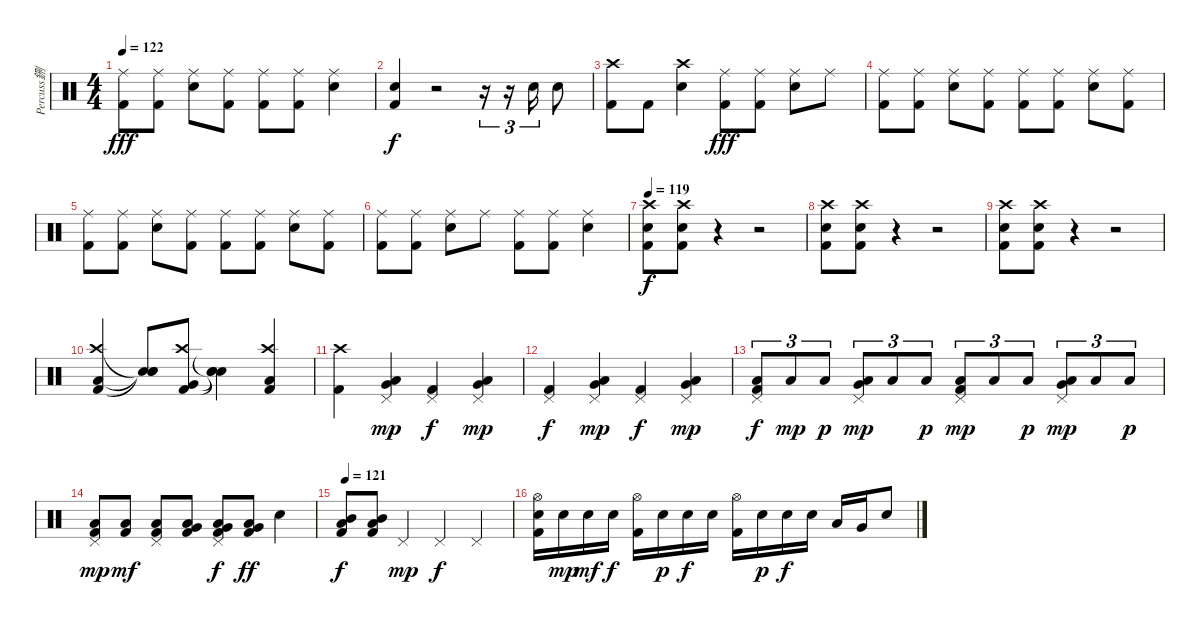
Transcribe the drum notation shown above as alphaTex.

\track ("Percuss鉶" "Percuss鉶") {instrument percussion}
\staff {score}
\articulation defaults
\ts (4 4)
\tempo 122
\clef neutral
\ks c
("Ride (middle)" "Kick (hit) 2").8{dy fff} ("Ride (middle)" "Kick (hit) 2").8 ("Ride (middle)" "Snare (hit) 2").8 ("Ride (middle)" "Kick (hit) 2").8 ("Ride (middle)" "Kick (hit) 2").8 ("Ride (middle)" "Kick (hit) 2").8 ("Ride (middle)" "Snare (hit) 2").4 |
("Snare (hit) 2" "Kick (hit) 2").4{dy f} r.2 r.16{tu (3 2)} r.16{tu (3 2)} "Snare (hit) 2".16{tu (3 2)} "Snare (hit) 2".8 |
("Crash high (hit)" "Kick (hit) 2").8 "Kick (hit) 2".8 ("Crash high (hit)" "Snare (hit) 2").4 ("Ride (middle)" "Kick (hit) 2").8{dy fff} ("Ride (middle)" "Kick (hit) 2").8 ("Ride (middle)" "Snare (hit) 2").8 "Ride (middle)".8 |
("Ride (middle)" "Kick (hit) 2").8 ("Ride (middle)" "Kick (hit) 2").8 ("Ride (middle)" "Snare (hit) 2").8 ("Ride (middle)" "Kick (hit) 2").8 ("Ride (middle)" "Kick (hit) 2").8 ("Ride (middle)" "Kick (hit) 2").8 ("Ride (middle)" "Snare (hit) 2").8 ("Ride (middle)" "Kick (hit) 2").8 |
("Ride (middle)" "Kick (hit) 2").8 ("Ride (middle)" "Kick (hit) 2").8 ("Ride (middle)" "Snare (hit) 2").8 ("Ride (middle)" "Kick (hit) 2").8 ("Ride (middle)" "Kick (hit) 2").8 ("Ride (middle)" "Kick (hit) 2").8 ("Ride (middle)" "Snare (hit) 2").8 ("Ride (middle)" "Kick (hit) 2").8 |
("Ride (middle)" "Kick (hit) 2").8 ("Ride (middle)" "Kick (hit) 2").8 ("Ride (middle)" "Snare (hit) 2").8 "Ride (middle)".8 ("Ride (middle)" "Kick (hit) 2").8 ("Ride (middle)" "Kick (hit) 2").8 ("Ride (middle)" "Snare (hit) 2").4 |
\tempo 119
("Crash high (hit)" "Snare (hit) 2" "Kick (hit) 2").8{dy f} ("Crash high (hit)" "Snare (hit) 2" "Kick (hit) 2").8 r.4 r.2 |
("Crash high (hit)" "Snare (hit) 2" "Kick (hit) 2").8 ("Crash high (hit)" "Snare (hit) 2" "Kick (hit) 2").8 r.4 r.2 |
("Crash high (hit)" "Snare (hit) 2" "Kick (hit) 2").8 ("Crash high (hit)" "Snare (hit) 2" "Kick (hit) 2").8 r.4 r.2 |
("Crash high (hit)" "Low Tom (hit)" "Kick (hit) 2").4 ("Snare (hit)"{t} "Snare (hit)"{t} "Snare (hit)"{t}).8 ("Crash high (hit)" "Very Low Tom (hit)" "Kick (hit) 2").8 ("Snare (hit)"{t} "Snare (hit)"{t} "Snare (hit)"{t}).4 ("Crash high (hit)" "Low Floor Tom (hit)" "Kick (hit) 2").4 |
("Crash high (hit)" "Kick (hit) 2").4 ("Pedal Hi-Hat (hit)" "Low Tom (hit)" "Very Low Tom (hit)").4{dy mp} ("Pedal Hi-Hat (hit)" "Kick (hit) 2").4{dy f} ("Pedal Hi-Hat (hit)" "Low Tom (hit)" "Very Low Tom (hit)").4{dy mp} |
("Pedal Hi-Hat (hit)" "Kick (hit) 2").4{dy f} ("Pedal Hi-Hat (hit)" "Low Tom (hit)" "Very Low Tom (hit)").4{dy mp} ("Pedal Hi-Hat (hit)" "Kick (hit) 2").4{dy f} ("Pedal Hi-Hat (hit)" "Low Tom (hit)" "Very Low Tom (hit)").4{dy mp} |
("Pedal Hi-Hat (hit)" "Low Floor Tom (hit)" "Kick (hit) 2").8{tu (3 2) dy f} "Low Floor Tom (hit)".8{tu (3 2) dy mp} "Low Floor Tom (hit)".8{tu (3 2) dy p} ("Pedal Hi-Hat (hit)" "Low Tom (hit)" "Very Low Tom (hit)").8{tu (3 2) dy mp} "Low Floor Tom (hit)".8{tu (3 2)} "Low Floor Tom (hit)".8{tu (3 2) dy p} ("Pedal Hi-Hat (hit)" "Low Floor Tom (hit)" "Kick (hit) 2").8{tu (3 2) dy mp} "Low Floor Tom (hit)".8{tu (3 2)} "Low Floor Tom (hit)".8{tu (3 2) dy p} ("Pedal Hi-Hat (hit)" "Low Tom (hit)" "Very Low Tom (hit)").8{tu (3 2) dy mp} "Low Floor Tom (hit)".8{tu (3 2)} "Low Floor Tom (hit)".8{tu (3 2) dy p} |
("Pedal Hi-Hat (hit)" "Low Tom (hit)" "Kick (hit) 2").8{dy mp} ("Low Tom (hit)" "Kick (hit) 2").8{dy mf} ("Pedal Hi-Hat (hit)" "Low Tom (hit)" "Kick (hit) 2").8 ("Low Tom (hit)" "Very Low Tom (hit)" "Kick (hit) 2").8 ("Pedal Hi-Hat (hit)" "Low Tom (hit)" "Very Low Tom (hit)" "Kick (hit) 2").8{dy f} ("Low Tom (hit)" "Very Low Tom (hit)" "Kick (hit) 2").8{dy ff} "Snare (hit) 2".4 |
\tempo 121
("Mid Tom (hit)" "Low Tom (hit)" "Kick (hit) 2").8{dy f} ("Mid Tom (hit)" "Low Tom (hit)" "Kick (hit) 2").8 "Pedal Hi-Hat (hit)".4{dy mp} "Pedal Hi-Hat (hit)".4{dy f} "Pedal Hi-Hat (hit)".4 |
("Hi-Hat (open)" "Snare (hit) 2" "Kick (hit) 2").16 "Snare (hit) 2".16{dy mp} "Snare (hit) 2".16{dy mf} "Snare (hit) 2".16{dy f} ("Hi-Hat (open)" "Kick (hit) 2").16 "Snare (hit) 2".16{dy p} "Snare (hit) 2".16{dy f} "Snare (hit) 2".16 ("Hi-Hat (open)" "Kick (hit) 2").16 "Snare (hit) 2".16{dy p} "Snare (hit) 2".16{dy f} "Snare (hit) 2".16 "Low Tom (hit)".16 "Very Low Tom (hit)".16 "Snare (hit) 2".8
